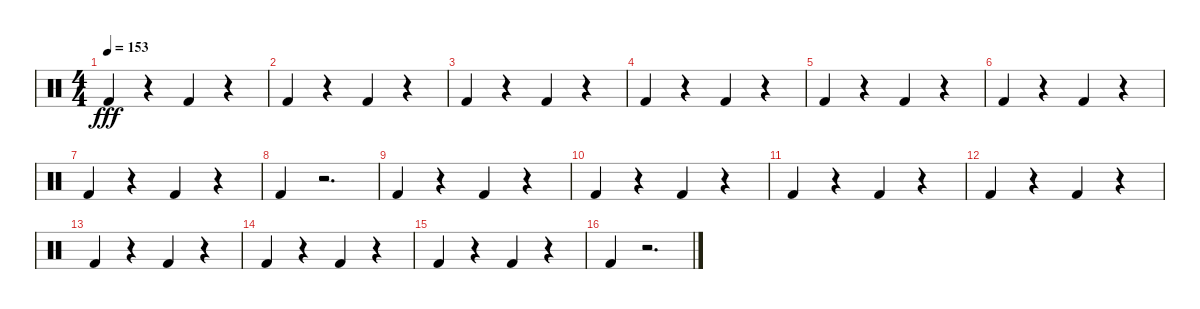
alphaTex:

\track "" {instrument percussion}
\staff {score}
\articulation defaults
\ts (4 4)
\tempo 153
\clef neutral
\ks c "Kick (hit) 2".4{dy fff}
r.4 "Kick (hit) 2".4 r.4 |
"Kick (hit) 2".4 r.4 "Kick (hit) 2".4 r.4 |
"Kick (hit) 2".4 r.4 "Kick (hit) 2".4 r.4 |
"Kick (hit) 2".4 r.4 "Kick (hit) 2".4 r.4 |
"Kick (hit) 2".4 r.4 "Kick (hit) 2".4 r.4 |
"Kick (hit) 2".4 r.4 "Kick (hit) 2".4 r.4 |
"Kick (hit) 2".4 r.4 "Kick (hit) 2".4 r.4 |
"Kick (hit) 2".4 r.2{d} |
"Kick (hit) 2".4 r.4 "Kick (hit) 2".4 r.4 |
"Kick (hit) 2".4 r.4 "Kick (hit) 2".4 r.4 |
"Kick (hit) 2".4 r.4 "Kick (hit) 2".4 r.4 |
"Kick (hit) 2".4 r.4 "Kick (hit) 2".4 r.4 |
"Kick (hit) 2".4 r.4 "Kick (hit) 2".4 r.4 |
"Kick (hit) 2".4 r.4 "Kick (hit) 2".4 r.4 |
"Kick (hit) 2".4 r.4 "Kick (hit) 2".4 r.4 |
"Kick (hit) 2".4 r.2{d}
